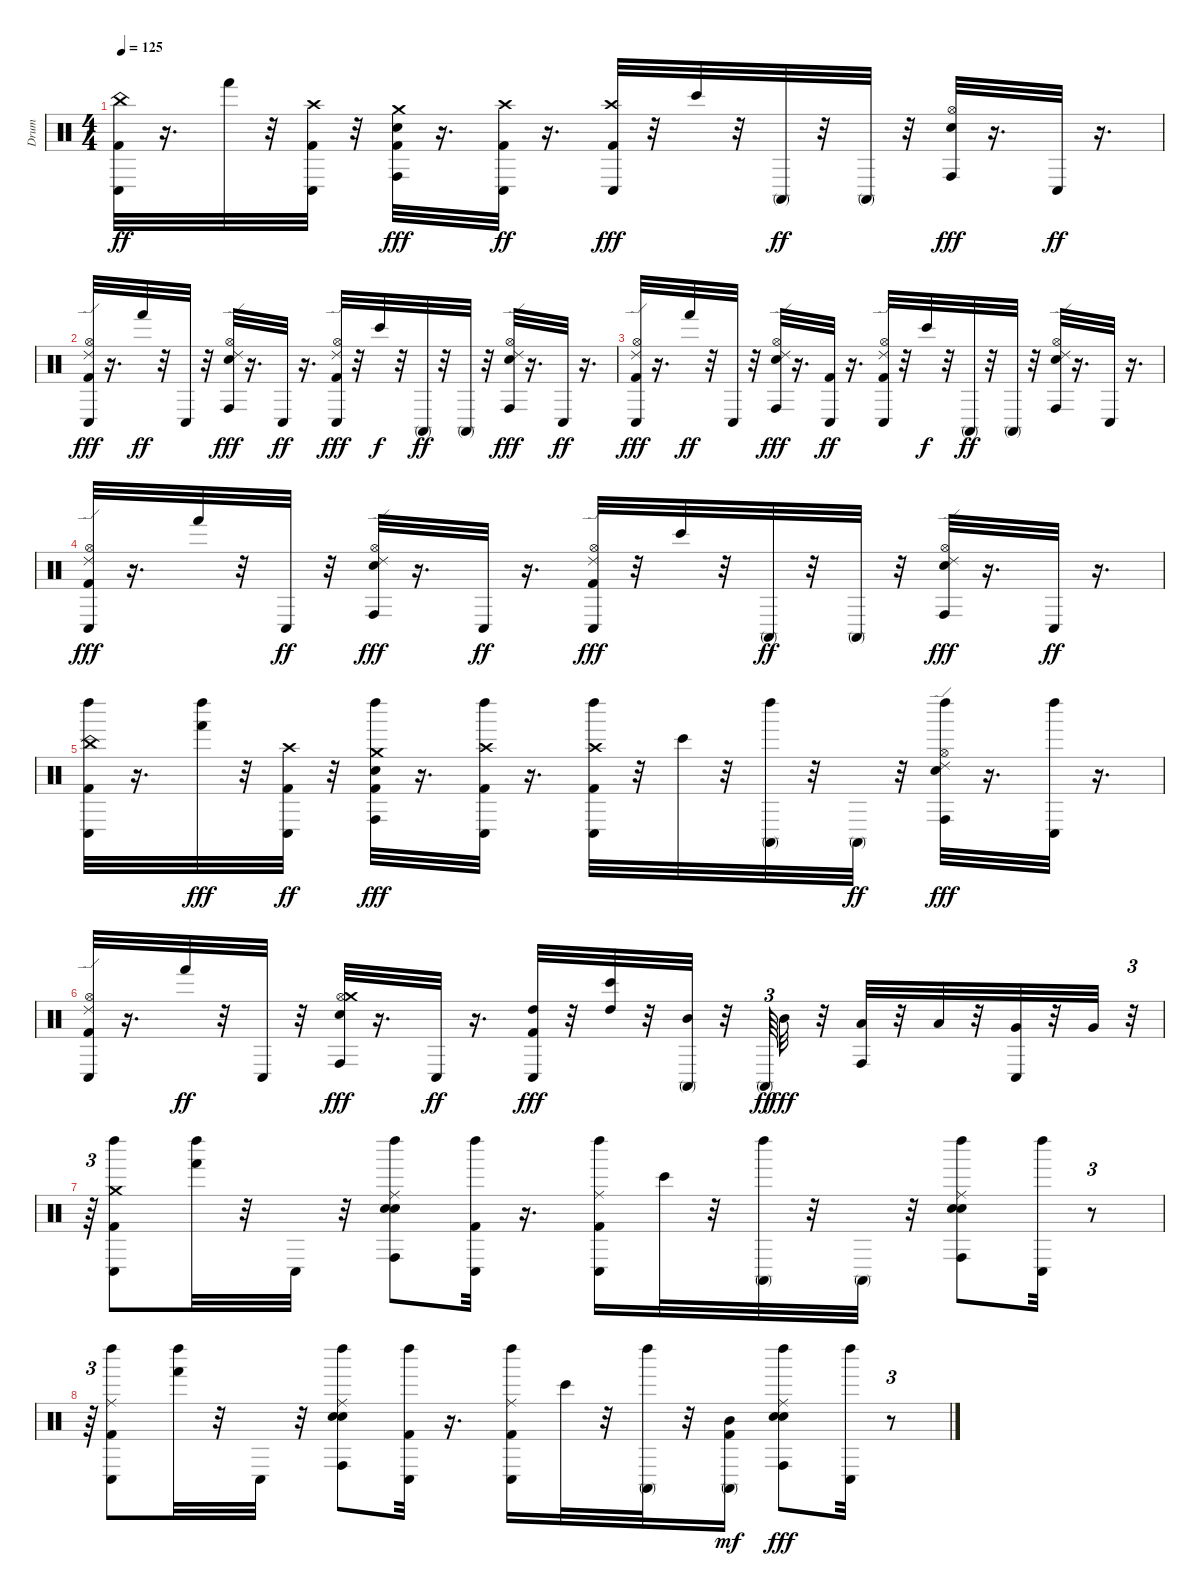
\track ("Drum" "Drum") {instrument percussion}
\staff {score}
\articulation defaults
\ts (4 4)
\tempo 125
\clef neutral
\ks c
("Kick (hit) 2" "Conga low (hit)" "China (hit)").32{dy ff} r.16{d} "Hand (hit)".32 r.32 ("Kick (hit) 2" "Conga low (hit)" "Crash high (hit)").32 r.32 ("Kick (hit) 2" "Conga high (hit)" "Electric Snare (hit)" "Crash medium (hit)").32{dy fff} r.16{d} ("Kick (hit) 2" "Conga low (hit)" "Crash high (hit)").32{dy ff} r.16{d} ("Kick (hit) 2" "Conga low (hit)" "Crash high (hit)").32{dy fff} r.32 "Bongo High (hit)".32 r.32 "Conga high (mute)".32{dy ff} r.32 "Conga high (mute)".32 r.32 ("Hi-Hat (open)" "Conga high (hit)" "Electric Snare (hit)").32{dy fff} r.16{d} "Conga low (hit)".32{dy ff} r.16{d} |
("Kick (hit) 2" "Hi-Hat (open)" "Conga low (hit)" "Ride (edge) 2").32{dy fff} r.16{d} "Hand (hit)".32{dy ff} r.32 "Conga low (hit)".32 r.32 ("Hi-Hat (open)" "Conga high (hit)" "Electric Snare (hit)" "Ride (edge) 2").32{dy fff} r.16{d} "Conga low (hit)".32{dy ff} r.16{d} ("Kick (hit) 2" "Hi-Hat (open)" "Conga low (hit)" "Ride (edge) 2").32{dy fff} r.32 "Bongo High (hit)".32{dy f} r.32 "Conga high (mute)".32{dy ff} r.32 "Conga high (mute)".32 r.32 ("Hi-Hat (open)" "Conga high (hit)" "Electric Snare (hit)" "Ride (edge) 2").32{dy fff} r.16{d} "Conga low (hit)".32{dy ff} r.16{d} |
("Kick (hit) 2" "Hi-Hat (open)" "Conga low (hit)" "Ride (edge) 2").32{dy fff} r.16{d} "Hand (hit)".32{dy ff} r.32 "Conga low (hit)".32 r.32 ("Hi-Hat (open)" "Conga high (hit)" "Electric Snare (hit)" "Ride (edge) 2").32{dy fff} r.16{d} ("Kick (hit) 2" "Conga low (hit)").32{dy ff} r.16{d} ("Kick (hit) 2" "Hi-Hat (open)" "Conga low (hit)" "Ride (edge) 2").32 r.32 "Bongo High (hit)".32{dy f} r.32 "Conga high (mute)".32{dy ff} r.32 "Conga high (mute)".32 r.32 ("Hi-Hat (open)" "Conga high (hit)" "Electric Snare (hit)" "Ride (edge) 2").32 r.16{d} "Conga low (hit)".32 r.16{d} |
("Kick (hit) 2" "Hi-Hat (open)" "Conga low (hit)" "Ride (edge) 2").32{dy fff} r.16{d} "Hand (hit)".32 r.32 "Conga low (hit)".32{dy ff} r.32 ("Hi-Hat (open)" "Conga high (hit)" "Electric Snare (hit)" "Ride (edge) 2").32{dy fff} r.16{d} "Conga low (hit)".32{dy ff} r.16{d} ("Kick (hit) 2" "Hi-Hat (open)" "Conga low (hit)" "Ride (edge) 2").32{dy fff} r.32 "Bongo High (hit)".32 r.32 "Conga high (mute)".32{dy ff} r.32 "Conga high (mute)".32 r.32 ("Hi-Hat (open)" "Conga high (hit)" "Electric Snare (hit)" "Ride (edge) 2").32{dy fff} r.16{d} "Conga low (hit)".32{dy ff} r.16{d} |
("Kick (hit) 2" "Conga low (hit)" "Left Maraca (hit)" "China (hit)").32 r.16{d} ("Hand (hit)" "Left Maraca (hit)").32{dy fff} r.32 ("Kick (hit) 2" "Conga low (hit)" "Crash high (hit)").32{dy ff} r.32 ("Kick (hit) 2" "Conga high (hit)" "Left Maraca (hit)" "Electric Snare (hit)" "Crash medium (hit)").32{dy fff} r.16{d} ("Kick (hit) 2" "Conga low (hit)" "Left Maraca (hit)" "Crash high (hit)").32 r.16{d} ("Kick (hit) 2" "Conga low (hit)" "Left Maraca (hit)" "Crash high (hit)").32 r.32 "Bongo High (hit)".32 r.32 ("Conga high (mute)" "Left Maraca (hit)").32 r.32 "Conga high (mute)".32{dy ff} r.32 ("Hi-Hat (open)" "Conga high (hit)" "Left Maraca (hit)" "Electric Snare (hit)" "Ride (edge) 2").32{dy fff} r.16{d} ("Conga low (hit)" "Left Maraca (hit)").32 r.16{d} |
("Kick (hit) 2" "Hi-Hat (open)" "Conga low (hit)" "Ride (edge) 2").32 r.16{d} "Hand (hit)".32{dy ff} r.32 "Conga low (hit)".32 r.32 ("Hi-Hat (open)" "Conga high (hit)" "Electric Snare (hit)" "Crash medium (hit)").32{dy fff} r.16{d} "Conga low (hit)".32{dy ff} r.16{d} ("Kick (hit) 2" "Conga low (hit)" "High Tom (hit)").32{dy fff} r.32 ("Bongo High (hit)" "High Tom (hit)").32 r.32 ("Conga high (mute)" "Mid Tom (hit)").32 r.32 "Conga high (mute)".64{tu (3 2) dy ff} "Mid Tom (hit)".32{dy fff} r.32 ("Conga high (hit)" "Low Tom (hit)").32 r.32 "Low Tom (hit)".32 r.32 ("Conga low (hit)" "Very Low Tom (hit)").32 r.32 "Very Low Tom (hit)".32 r.32{tu (3 2)} |
r.64{tu (3 2)} ("Kick (hit) 2" "Conga low (hit)" "Left Maraca (hit)" "Crash medium (hit)").8 ("Hand (hit)" "Left Maraca (hit)").32 r.32 "Conga low (hit)".32 r.32 ("Conga high (hit)" "Left Maraca (hit)" "Electric Snare (hit)" "Ride (middle)" "Electric Snare (hit)").8 ("Kick (hit) 2" "Conga low (hit)" "Left Maraca (hit)").32 r.16{d} ("Kick (hit) 2" "Conga low (hit)" "Left Maraca (hit)" "Ride (middle)").16 "Bongo High (hit)".32 r.32 ("Conga high (mute)" "Left Maraca (hit)").32 r.32 "Conga high (mute)".32 r.32 ("Conga high (hit)" "Left Maraca (hit)" "Electric Snare (hit)" "Ride (middle)" "Electric Snare (hit)").8 ("Conga low (hit)" "Left Maraca (hit)").32 r.8{tu (3 2)} |
r.64{tu (3 2)} ("Kick (hit) 2" "Conga low (hit)" "Left Maraca (hit)" "Ride (middle)").8 ("Hand (hit)" "Left Maraca (hit)").32 r.32 "Conga low (hit)".32 r.32 ("Conga high (hit)" "Left Maraca (hit)" "Electric Snare (hit)" "Ride (middle)" "Electric Snare (hit)").8 ("Kick (hit) 2" "Conga low (hit)" "Left Maraca (hit)").32 r.16{d} ("Kick (hit) 2" "Conga low (hit)" "Left Maraca (hit)" "Ride (middle)").16 "Bongo High (hit)".32 r.32 ("Conga high (mute)" "Left Maraca (hit)").32 r.32 ("Kick (hit) 2" "Conga high (mute)" "Mid Tom (hit)").16{dy mf} ("Conga high (hit)" "Left Maraca (hit)" "Electric Snare (hit)" "Ride (middle)" "Electric Snare (hit)").8{dy fff} ("Conga low (hit)" "Left Maraca (hit)").32 r.8{tu (3 2)}
